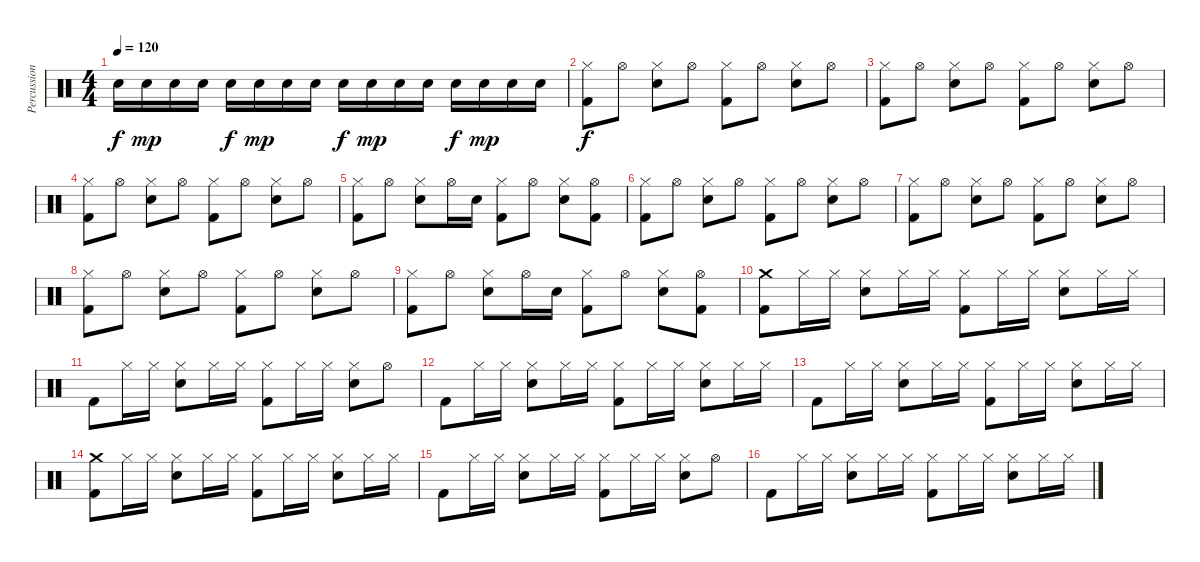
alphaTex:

\track ("Percussion" "Percussion") {instrument percussion}
\staff {score}
\articulation defaults
\ts (4 4)
\tempo 120
\clef neutral
\ks c "Snare (hit) 2".16{dy f} "Snare (hit) 2".16{dy mp} "Snare (hit) 2".16 "Snare (hit) 2".16 "Snare (hit) 2".16{dy f} "Snare (hit) 2".16{dy mp} "Snare (hit) 2".16 "Snare (hit) 2".16 "Snare (hit) 2".16{dy f} "Snare (hit) 2".16{dy mp} "Snare (hit) 2".16 "Snare (hit) 2".16 "Snare (hit) 2".16{dy f} "Snare (hit) 2".16{dy mp} "Snare (hit) 2".16 "Snare (hit) 2".16
|
("Hi-Hat (closed)" "Kick (hit) 2").8{dy f} "Hi-Hat (open)".8 ("Hi-Hat (closed)" "Snare (hit) 2").8 "Hi-Hat (open)".8 ("Hi-Hat (closed)" "Kick (hit) 2").8 "Hi-Hat (open)".8 ("Hi-Hat (closed)" "Snare (hit) 2").8 "Hi-Hat (open)".8 |
("Hi-Hat (closed)" "Kick (hit) 2").8 "Hi-Hat (open)".8 ("Hi-Hat (closed)" "Snare (hit) 2").8 "Hi-Hat (open)".8 ("Hi-Hat (closed)" "Kick (hit) 2").8 "Hi-Hat (open)".8 ("Hi-Hat (closed)" "Snare (hit) 2").8 "Hi-Hat (open)".8 |
("Hi-Hat (closed)" "Kick (hit) 2").8 "Hi-Hat (open)".8 ("Hi-Hat (closed)" "Snare (hit) 2").8 "Hi-Hat (open)".8 ("Hi-Hat (closed)" "Kick (hit) 2").8 "Hi-Hat (open)".8 ("Hi-Hat (closed)" "Snare (hit) 2").8 "Hi-Hat (open)".8 |
("Hi-Hat (closed)" "Kick (hit) 2").8 "Hi-Hat (open)".8 ("Hi-Hat (closed)" "Snare (hit) 2").8 "Hi-Hat (open)".16 "Snare (hit) 2".16 ("Hi-Hat (closed)" "Kick (hit) 2").8 "Hi-Hat (open)".8 ("Hi-Hat (closed)" "Snare (hit) 2").8 ("Hi-Hat (open)" "Kick (hit) 2").8 |
("Hi-Hat (closed)" "Kick (hit) 2").8 "Hi-Hat (open)".8 ("Hi-Hat (closed)" "Snare (hit) 2").8 "Hi-Hat (open)".8 ("Hi-Hat (closed)" "Kick (hit) 2").8 "Hi-Hat (open)".8 ("Hi-Hat (closed)" "Snare (hit) 2").8 "Hi-Hat (open)".8 |
("Hi-Hat (closed)" "Kick (hit) 2").8 "Hi-Hat (open)".8 ("Hi-Hat (closed)" "Snare (hit) 2").8 "Hi-Hat (open)".8 ("Hi-Hat (closed)" "Kick (hit) 2").8 "Hi-Hat (open)".8 ("Hi-Hat (closed)" "Snare (hit) 2").8 "Hi-Hat (open)".8 |
("Hi-Hat (closed)" "Kick (hit) 2").8 "Hi-Hat (open)".8 ("Hi-Hat (closed)" "Snare (hit) 2").8 "Hi-Hat (open)".8 ("Hi-Hat (closed)" "Kick (hit) 2").8 "Hi-Hat (open)".8 ("Hi-Hat (closed)" "Snare (hit) 2").8 "Hi-Hat (open)".8 |
("Hi-Hat (closed)" "Kick (hit) 2").8 "Hi-Hat (open)".8 ("Hi-Hat (closed)" "Snare (hit) 2").8 "Hi-Hat (open)".16 "Snare (hit) 2".16 ("Hi-Hat (closed)" "Kick (hit) 2").8 "Hi-Hat (open)".8 ("Hi-Hat (closed)" "Snare (hit) 2").8 ("Hi-Hat (open)" "Kick (hit) 2").8 |
("Crash medium (hit)" "Kick (hit) 2").8 "Hi-Hat (closed)".16 "Hi-Hat (closed)".16 ("Hi-Hat (closed)" "Snare (hit) 2").8 "Hi-Hat (closed)".16 "Hi-Hat (closed)".16 ("Hi-Hat (closed)" "Kick (hit) 2").8 "Hi-Hat (closed)".16 "Hi-Hat (closed)".16 ("Hi-Hat (closed)" "Snare (hit) 2").8 "Hi-Hat (closed)".16 "Hi-Hat (closed)".16 |
"Kick (hit) 2".8 "Hi-Hat (closed)".16 "Hi-Hat (closed)".16 ("Hi-Hat (closed)" "Snare (hit) 2").8 "Hi-Hat (closed)".16 "Hi-Hat (closed)".16 ("Hi-Hat (closed)" "Kick (hit) 2").8 "Hi-Hat (closed)".16 "Hi-Hat (closed)".16 ("Hi-Hat (closed)" "Snare (hit) 2").8 "Hi-Hat (open)".8 |
"Kick (hit) 2".8 "Hi-Hat (closed)".16 "Hi-Hat (closed)".16 ("Hi-Hat (closed)" "Snare (hit) 2").8 "Hi-Hat (closed)".16 "Hi-Hat (closed)".16 ("Hi-Hat (closed)" "Kick (hit) 2").8 "Hi-Hat (closed)".16 "Hi-Hat (closed)".16 ("Hi-Hat (closed)" "Snare (hit) 2").8 "Hi-Hat (closed)".16 "Hi-Hat (closed)".16 |
"Kick (hit) 2".8 "Hi-Hat (closed)".16 "Hi-Hat (closed)".16 ("Hi-Hat (closed)" "Snare (hit) 2").8 "Hi-Hat (closed)".16 "Hi-Hat (closed)".16 ("Hi-Hat (closed)" "Kick (hit) 2").8 "Hi-Hat (closed)".16 "Hi-Hat (closed)".16 ("Hi-Hat (closed)" "Snare (hit) 2").8 "Hi-Hat (closed)".16 "Hi-Hat (closed)".16 |
("Crash medium (hit)" "Kick (hit) 2").8 "Hi-Hat (closed)".16 "Hi-Hat (closed)".16 ("Hi-Hat (closed)" "Snare (hit) 2").8 "Hi-Hat (closed)".16 "Hi-Hat (closed)".16 ("Hi-Hat (closed)" "Kick (hit) 2").8 "Hi-Hat (closed)".16 "Hi-Hat (closed)".16 ("Hi-Hat (closed)" "Snare (hit) 2").8 "Hi-Hat (closed)".16 "Hi-Hat (closed)".16 |
"Kick (hit) 2".8 "Hi-Hat (closed)".16 "Hi-Hat (closed)".16 ("Hi-Hat (closed)" "Snare (hit) 2").8 "Hi-Hat (closed)".16 "Hi-Hat (closed)".16 ("Hi-Hat (closed)" "Kick (hit) 2").8 "Hi-Hat (closed)".16 "Hi-Hat (closed)".16 ("Hi-Hat (closed)" "Snare (hit) 2").8 "Hi-Hat (open)".8 |
"Kick (hit) 2".8 "Hi-Hat (closed)".16 "Hi-Hat (closed)".16 ("Hi-Hat (closed)" "Snare (hit) 2").8 "Hi-Hat (closed)".16 "Hi-Hat (closed)".16 ("Hi-Hat (closed)" "Kick (hit) 2").8 "Hi-Hat (closed)".16 "Hi-Hat (closed)".16 ("Hi-Hat (closed)" "Snare (hit) 2").8 "Hi-Hat (closed)".16 "Hi-Hat (closed)".16
